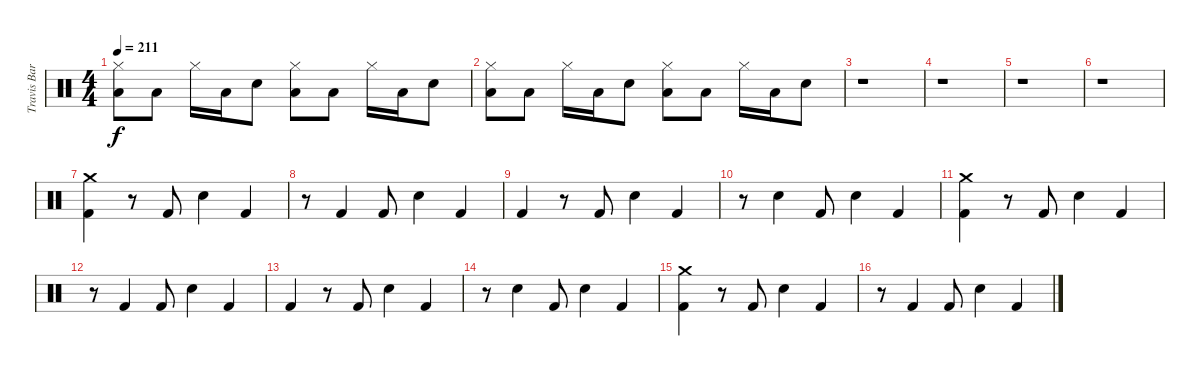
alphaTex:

\track ("Travis Barker (Drums)" "Travis Bar") {instrument percussion}
\staff {score}
\articulation defaults
\ts (4 4)
\tempo 211
\clef neutral
\ks c
("Low Floor Tom (hit)" "Hi-Hat (closed)").8{dy f} "Low Floor Tom (hit)".8 "Hi-Hat (closed)".16 "Low Floor Tom (hit)".16 "Electric Snare (hit)".8 ("Low Floor Tom (hit)" "Hi-Hat (closed)").8 "Low Floor Tom (hit)".8 "Hi-Hat (closed)".16 "Low Floor Tom (hit)".16 "Electric Snare (hit)".8 |
("Low Floor Tom (hit)" "Hi-Hat (closed)").8 "Low Floor Tom (hit)".8 "Hi-Hat (closed)".16 "Low Floor Tom (hit)".16 "Electric Snare (hit)".8 ("Low Floor Tom (hit)" "Hi-Hat (closed)").8 "Low Floor Tom (hit)".8 "Hi-Hat (closed)".16 "Low Floor Tom (hit)".16 "Electric Snare (hit)".8 |
r.1 |
r.1 |
r.1 |
r.1 |
("Kick (hit) 2" "Crash medium (hit)").4 r.8 "Kick (hit) 2".8 "Electric Snare (hit)".4 "Kick (hit) 2".4 |
r.8 "Kick (hit) 2".4 "Kick (hit) 2".8 "Electric Snare (hit)".4 "Kick (hit) 2".4 |
"Kick (hit) 2".4 r.8 "Kick (hit) 2".8 "Electric Snare (hit)".4 "Kick (hit) 2".4 |
r.8 "Electric Snare (hit)".4 "Kick (hit) 2".8 "Electric Snare (hit)".4 "Kick (hit) 2".4 |
("Kick (hit) 2" "Crash medium (hit)").4 r.8 "Kick (hit) 2".8 "Electric Snare (hit)".4 "Kick (hit) 2".4 |
r.8 "Kick (hit) 2".4 "Kick (hit) 2".8 "Electric Snare (hit)".4 "Kick (hit) 2".4 |
"Kick (hit) 2".4 r.8 "Kick (hit) 2".8 "Electric Snare (hit)".4 "Kick (hit) 2".4 |
r.8 "Electric Snare (hit)".4 "Kick (hit) 2".8 "Electric Snare (hit)".4 "Kick (hit) 2".4 |
("Kick (hit) 2" "Crash medium (hit)").4 r.8 "Kick (hit) 2".8 "Electric Snare (hit)".4 "Kick (hit) 2".4 |
r.8 "Kick (hit) 2".4 "Kick (hit) 2".8 "Electric Snare (hit)".4 "Kick (hit) 2".4
